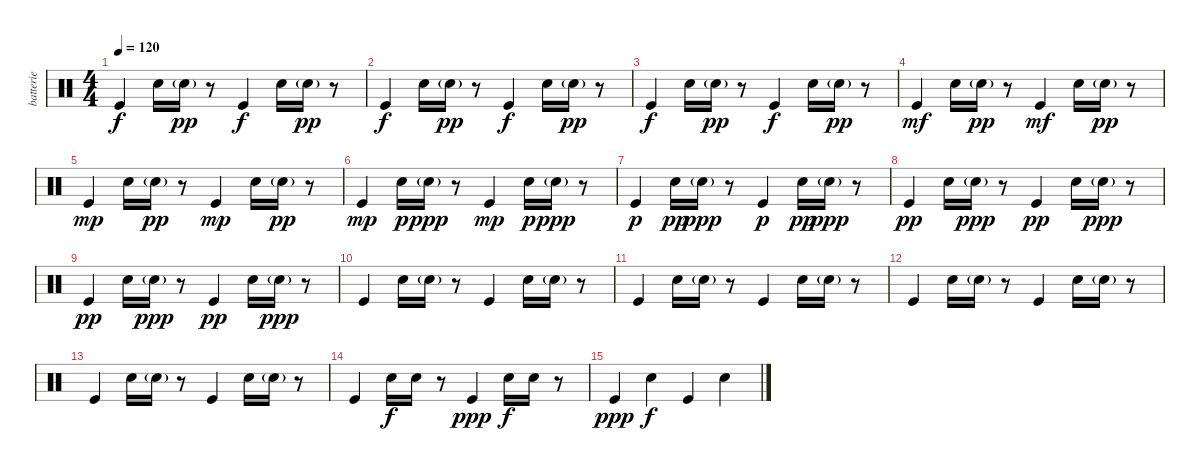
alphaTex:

\track ("batterie" "batterie") {instrument percussion}
\staff {score}
\articulation defaults
\ts (4 4)
\tempo 120
\clef neutral
\ks c "Kick (hit)".4{dy f} "Electric Snare (hit)".16 "Electric Snare (hit)"{g}.16{dy pp}
r.8 "Kick (hit)".4{dy f} "Electric Snare (hit)".16 "Electric Snare (hit)"{g}.16{dy pp} r.8 |
"Kick (hit)".4{dy f} "Electric Snare (hit)".16 "Electric Snare (hit)"{g}.16{dy pp} r.8 "Kick (hit)".4{dy f} "Electric Snare (hit)".16 "Electric Snare (hit)"{g}.16{dy pp} r.8 |
"Kick (hit)".4{dy f} "Electric Snare (hit)".16 "Electric Snare (hit)"{g}.16{dy pp} r.8 "Kick (hit)".4{dy f} "Electric Snare (hit)".16 "Electric Snare (hit)"{g}.16{dy pp} r.8 |
"Kick (hit)".4{dy mf} "Electric Snare (hit)".16 "Electric Snare (hit)"{g}.16{dy pp} r.8 "Kick (hit)".4{dy mf} "Electric Snare (hit)".16 "Electric Snare (hit)"{g}.16{dy pp} r.8 |
"Kick (hit)".4{dy mp} "Electric Snare (hit)".16 "Electric Snare (hit)"{g}.16{dy pp} r.8 "Kick (hit)".4{dy mp} "Electric Snare (hit)".16 "Electric Snare (hit)"{g}.16{dy pp} r.8 |
"Kick (hit)".4{dy mp} "Electric Snare (hit)".16{dy p} "Electric Snare (hit)"{g}.16{dy ppp} r.8 "Kick (hit)".4{dy mp} "Electric Snare (hit)".16{dy p} "Electric Snare (hit)"{g}.16{dy ppp} r.8 |
"Kick (hit)".4{dy p} "Electric Snare (hit)".16{dy pp} "Electric Snare (hit)"{g}.16{dy ppp} r.8 "Kick (hit)".4{dy p} "Electric Snare (hit)".16{dy pp} "Electric Snare (hit)"{g}.16{dy ppp} r.8 |
"Kick (hit)".4{dy pp} "Electric Snare (hit)".16 "Electric Snare (hit)"{g}.16{dy ppp} r.8 "Kick (hit)".4{dy pp} "Electric Snare (hit)".16 "Electric Snare (hit)"{g}.16{dy ppp} r.8 |
"Kick (hit)".4{dy pp} "Electric Snare (hit)".16 "Electric Snare (hit)"{g}.16{dy ppp} r.8 "Kick (hit)".4{dy pp} "Electric Snare (hit)".16 "Electric Snare (hit)"{g}.16{dy ppp} r.8 |
"Kick (hit)".4 "Electric Snare (hit)".16 "Electric Snare (hit)"{g}.16 r.8 "Kick (hit)".4 "Electric Snare (hit)".16 "Electric Snare (hit)"{g}.16 r.8 |
"Kick (hit)".4 "Electric Snare (hit)".16 "Electric Snare (hit)"{g}.16 r.8 "Kick (hit)".4 "Electric Snare (hit)".16 "Electric Snare (hit)"{g}.16 r.8 |
"Kick (hit)".4 "Electric Snare (hit)".16 "Electric Snare (hit)"{g}.16 r.8 "Kick (hit)".4 "Electric Snare (hit)".16 "Electric Snare (hit)"{g}.16 r.8 |
"Kick (hit)".4 "Electric Snare (hit)".16 "Electric Snare (hit)"{g}.16 r.8 "Kick (hit)".4 "Electric Snare (hit)".16 "Electric Snare (hit)"{g}.16 r.8 |
"Kick (hit)".4 "Electric Snare (hit)"{x}.16{dy f} "Electric Snare (hit)"{x}.16 r.8 "Kick (hit)".4{dy ppp} "Electric Snare (hit)"{x}.16{dy f} "Electric Snare (hit)"{x}.16 r.8 |
"Kick (hit)".4{dy ppp} "Electric Snare (hit)"{x}.4{dy f} "Kick (hit)"{x}.4 "Electric Snare (hit)"{x}.4
